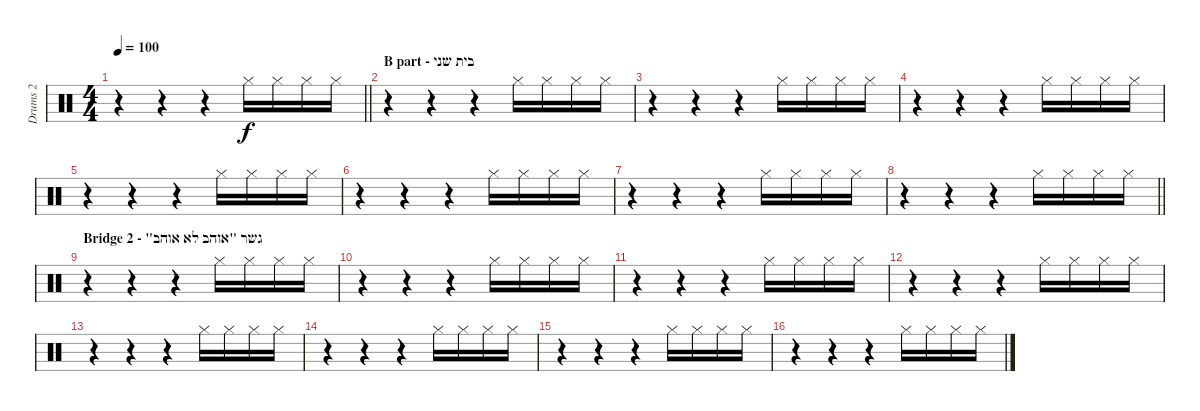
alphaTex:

\track ("Drums 2" "Drums 2") {instrument percussion}
\staff {score}
\articulation defaults
\ts (4 4)
\tempo 100
\clef neutral
\barLineRight lightlight
\ks c
r.4{dy f} r.4 r.4 "Hi-Hat (closed)".16 "Hi-Hat (closed)".16 "Hi-Hat (closed)".16 "Hi-Hat (closed)".16 |
\section ("" "B part - בית שני")
r.4 r.4 r.4 "Hi-Hat (closed)".16 "Hi-Hat (closed)".16 "Hi-Hat (closed)".16 "Hi-Hat (closed)".16 |
r.4 r.4 r.4 "Hi-Hat (closed)".16 "Hi-Hat (closed)".16 "Hi-Hat (closed)".16 "Hi-Hat (closed)".16 |
r.4 r.4 r.4 "Hi-Hat (closed)".16 "Hi-Hat (closed)".16 "Hi-Hat (closed)".16 "Hi-Hat (closed)".16 |
r.4 r.4 r.4 "Hi-Hat (closed)".16 "Hi-Hat (closed)".16 "Hi-Hat (closed)".16 "Hi-Hat (closed)".16 |
r.4 r.4 r.4 "Hi-Hat (closed)".16 "Hi-Hat (closed)".16 "Hi-Hat (closed)".16 "Hi-Hat (closed)".16 |
r.4 r.4 r.4 "Hi-Hat (closed)".16 "Hi-Hat (closed)".16 "Hi-Hat (closed)".16 "Hi-Hat (closed)".16 |
\barLineRight lightlight
r.4 r.4 r.4 "Hi-Hat (closed)".16 "Hi-Hat (closed)".16 "Hi-Hat (closed)".16 "Hi-Hat (closed)".16 |
\section ("" "Bridge 2 - \"גשר \"אוהב לא אוהב")
r.4 r.4 r.4 "Hi-Hat (closed)".16 "Hi-Hat (closed)".16 "Hi-Hat (closed)".16 "Hi-Hat (closed)".16 |
r.4 r.4 r.4 "Hi-Hat (closed)".16 "Hi-Hat (closed)".16 "Hi-Hat (closed)".16 "Hi-Hat (closed)".16 |
r.4 r.4 r.4 "Hi-Hat (closed)".16 "Hi-Hat (closed)".16 "Hi-Hat (closed)".16 "Hi-Hat (closed)".16 |
r.4 r.4 r.4 "Hi-Hat (closed)".16 "Hi-Hat (closed)".16 "Hi-Hat (closed)".16 "Hi-Hat (closed)".16 |
r.4 r.4 r.4 "Hi-Hat (closed)".16 "Hi-Hat (closed)".16 "Hi-Hat (closed)".16 "Hi-Hat (closed)".16 |
r.4 r.4 r.4 "Hi-Hat (closed)".16 "Hi-Hat (closed)".16 "Hi-Hat (closed)".16 "Hi-Hat (closed)".16 |
r.4 r.4 r.4 "Hi-Hat (closed)".16 "Hi-Hat (closed)".16 "Hi-Hat (closed)".16 "Hi-Hat (closed)".16 |
r.4 r.4 r.4 "Hi-Hat (closed)".16 "Hi-Hat (closed)".16 "Hi-Hat (closed)".16 "Hi-Hat (closed)".16
